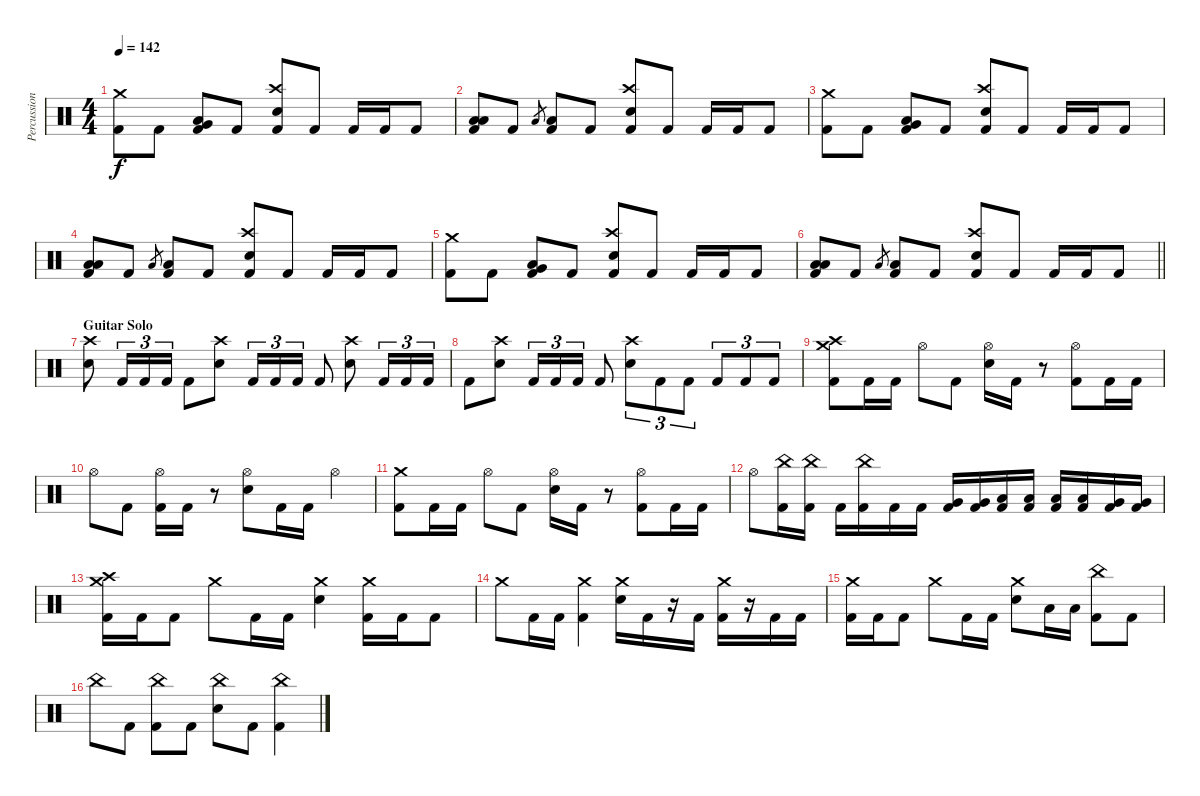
\track ("Percussion" "Percussion") {instrument percussion}
\staff {score}
\articulation defaults
\ts (4 4)
\tempo 142
\clef neutral
\ks c
("Crash medium (hit)" "Kick (hit) 2").8{dy f} "Kick (hit) 2".8 ("Very Low Tom (hit)" "Low Floor Tom (hit)" "Kick (hit) 2").8 "Kick (hit) 2".8 ("Crash high (hit)" "Electric Snare (hit)" "Kick (hit) 2").8 "Kick (hit) 2".8 "Kick (hit) 2".16 "Kick (hit) 2".16 "Kick (hit) 2".8 |
("Low Tom (hit)" "Low Floor Tom (hit)" "Kick (hit) 2").8 "Kick (hit) 2".8 "Low Tom (hit)".8{gr} ("Low Tom (hit)" "Kick (hit) 2").8 "Kick (hit) 2".8 ("Crash high (hit)" "Electric Snare (hit)" "Kick (hit) 2").8 "Kick (hit) 2".8 "Kick (hit) 2".16 "Kick (hit) 2".16 "Kick (hit) 2".8 |
("Crash medium (hit)" "Kick (hit) 2").8 "Kick (hit) 2".8 ("Very Low Tom (hit)" "Low Floor Tom (hit)" "Kick (hit) 2").8 "Kick (hit) 2".8 ("Crash high (hit)" "Electric Snare (hit)" "Kick (hit) 2").8 "Kick (hit) 2".8 "Kick (hit) 2".16 "Kick (hit) 2".16 "Kick (hit) 2".8 |
("Low Tom (hit)" "Low Floor Tom (hit)" "Kick (hit) 2").8 "Kick (hit) 2".8 "Low Tom (hit)".8{gr} ("Low Tom (hit)" "Kick (hit) 2").8 "Kick (hit) 2".8 ("Crash high (hit)" "Electric Snare (hit)" "Kick (hit) 2").8 "Kick (hit) 2".8 "Kick (hit) 2".16 "Kick (hit) 2".16 "Kick (hit) 2".8 |
("Crash medium (hit)" "Kick (hit) 2").8 "Kick (hit) 2".8 ("Very Low Tom (hit)" "Low Floor Tom (hit)" "Kick (hit) 2").8 "Kick (hit) 2".8 ("Crash high (hit)" "Electric Snare (hit)" "Kick (hit) 2").8 "Kick (hit) 2".8 "Kick (hit) 2".16 "Kick (hit) 2".16 "Kick (hit) 2".8 |
\barLineRight lightlight
("Low Tom (hit)" "Low Floor Tom (hit)" "Kick (hit) 2").8 "Kick (hit) 2".8 "Low Tom (hit)".8{gr} ("Low Tom (hit)" "Kick (hit) 2").8 "Kick (hit) 2".8 ("Crash high (hit)" "Electric Snare (hit)" "Kick (hit) 2").8 "Kick (hit) 2".8 "Kick (hit) 2".16 "Kick (hit) 2".16 "Kick (hit) 2".8 |
\section ("" "Guitar Solo")
("Crash high (hit)" "Electric Snare (hit)").8 "Kick (hit) 2".16{tu (3 2)} "Kick (hit) 2".16{tu (3 2)} "Kick (hit) 2".16{tu (3 2)} "Kick (hit) 2".8 ("Crash high (hit)" "Electric Snare (hit)").8 "Kick (hit) 2".16{tu (3 2)} "Kick (hit) 2".16{tu (3 2)} "Kick (hit) 2".16{tu (3 2)} "Kick (hit) 2".8 ("Crash high (hit)" "Electric Snare (hit)").8 "Kick (hit) 2".16{tu (3 2)} "Kick (hit) 2".16{tu (3 2)} "Kick (hit) 2".16{tu (3 2)} |
"Kick (hit) 2".8 ("Crash high (hit)" "Electric Snare (hit)").8 "Kick (hit) 2".16{tu (3 2)} "Kick (hit) 2".16{tu (3 2)} "Kick (hit) 2".16{tu (3 2)} "Kick (hit) 2".8 ("Crash high (hit)" "Electric Snare (hit)").8{tu (3 2)} "Kick (hit) 2".8{tu (3 2)} "Kick (hit) 2".8{tu (3 2)} "Kick (hit) 2".8{tu (3 2)} "Kick (hit) 2".8{tu (3 2)} "Kick (hit) 2".8{tu (3 2)} |
("Crash medium (hit)" "Crash high (hit)" "Kick (hit) 2").8 "Kick (hit) 2".16 "Kick (hit) 2".16 "Hi-Hat (open)".8 "Kick (hit) 2".8 ("Hi-Hat (open)" "Electric Snare (hit)").16 "Kick (hit) 2".16 r.8 ("Hi-Hat (open)" "Kick (hit) 2").8 "Kick (hit) 2".16 "Kick (hit) 2".16 |
"Hi-Hat (open)".8 "Kick (hit) 2".8 ("Hi-Hat (open)" "Kick (hit) 2").16 "Kick (hit) 2".16 r.8 ("Hi-Hat (open)" "Electric Snare (hit)").8 "Kick (hit) 2".16 "Kick (hit) 2".16 "Hi-Hat (open)".4 |
("Crash medium (hit)" "Kick (hit) 2").8 "Kick (hit) 2".16 "Kick (hit) 2".16 "Hi-Hat (open)".8 "Kick (hit) 2".8 ("Hi-Hat (open)" "Electric Snare (hit)").16 "Kick (hit) 2".16 r.8 ("Hi-Hat (open)" "Kick (hit) 2").8 "Kick (hit) 2".16 "Kick (hit) 2".16 |
"Hi-Hat (open)".8 ("China (hit)" "Kick (hit) 2").16 ("China (hit)" "Kick (hit) 2").16 "Kick (hit) 2".16 ("China (hit)" "Kick (hit) 2").16 "Kick (hit) 2".16 "Kick (hit) 2".16 ("Very Low Tom (hit)" "Kick (hit) 2").16 ("Very Low Tom (hit)" "Kick (hit) 2").16 ("Low Floor Tom (hit)" "Kick (hit) 2").16 ("Low Floor Tom (hit)" "Kick (hit) 2").16 ("Low Tom (hit)" "Kick (hit) 2").16 ("Low Tom (hit)" "Kick (hit) 2").16 ("Very Low Tom (hit)" "Kick (hit) 2").16 ("Very Low Tom (hit)" "Kick (hit) 2").16 |
("Crash medium (hit)" "Crash high (hit)" "Kick (hit) 2").16 "Kick (hit) 2".16 "Kick (hit) 2".8 "Crash medium (hit)".8 "Kick (hit) 2".16 "Kick (hit) 2".16 ("Crash medium (hit)" "Electric Snare (hit)").4 ("Crash medium (hit)" "Kick (hit) 2").16 "Kick (hit) 2".16 "Kick (hit) 2".8 |
"Crash medium (hit)".8 "Kick (hit) 2".16 "Kick (hit) 2".16 ("Crash medium (hit)" "Kick (hit) 2").4 ("Crash medium (hit)" "Electric Snare (hit)").16 "Kick (hit) 2".16 r.16 "Kick (hit) 2".16 ("Crash medium (hit)" "Kick (hit) 2").16 r.16 "Kick (hit) 2".16 "Kick (hit) 2".16 |
("Crash medium (hit)" "Kick (hit) 2").16 "Kick (hit) 2".16 "Kick (hit) 2".8 "Crash medium (hit)".8 "Kick (hit) 2".16 "Kick (hit) 2".16 ("Crash medium (hit)" "Electric Snare (hit)").8 "Low Tom (hit)".16 "Low Tom (hit)".16 ("China (hit)" "Kick (hit) 2").8 "Kick (hit) 2".8 |
"China (hit)".8 "Kick (hit) 2".8 ("China (hit)" "Kick (hit) 2").8 "Kick (hit) 2".8 ("China (hit)" "Electric Snare (hit)").8 "Kick (hit) 2".8 ("China (hit)" "Kick (hit) 2").4
